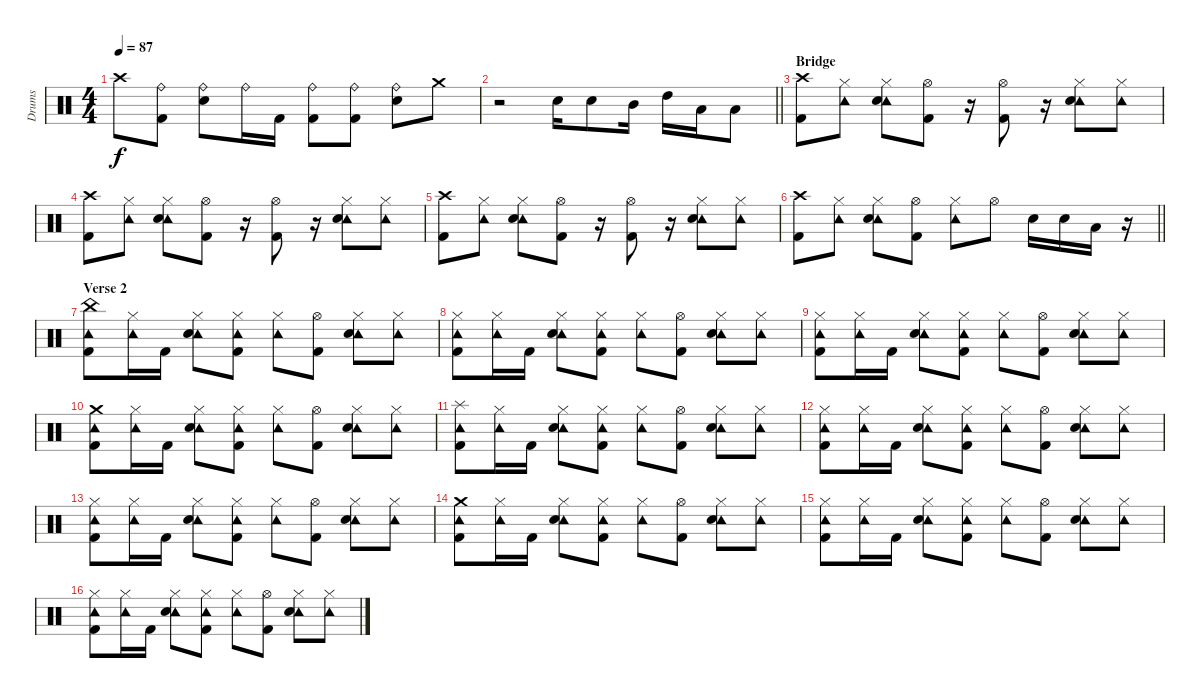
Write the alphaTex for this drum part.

\track ("Drums" "Drums") {instrument percussion}
\staff {score}
\articulation defaults
\ts (4 4)
\tempo 87
\clef neutral
\ks c "Crash high (hit)".8{dy f}
("Ride (bell)" "Kick (hit) 2").8 ("Ride (bell)" "Snare (hit) 2").8 "Ride (bell)".16 "Kick (hit) 2".16 ("Ride (bell)" "Kick (hit) 2").8 ("Ride (bell)" "Kick (hit) 2").8 ("Ride (bell)" "Snare (hit) 2").8 "Crash medium (hit)".8 |
\barLineRight lightlight
r.2 "Snare (hit) 2".16 "Snare (hit) 2".8 "Mid Tom (hit)".16 "High Tom (hit)".16 "Low Tom (hit)".16 "Low Floor Tom (hit)".8 |
\section ("" "Bridge")
("Crash high (hit)" "Kick (hit) 2").8 ("Tambourine (hit)" "Hi-Hat (closed)").8 ("Tambourine (hit)" "Hi-Hat (closed)" "Snare (hit) 2").8 ("Hi-Hat (open)" "Kick (hit) 2").8 r.16 ("Hi-Hat (open)" "Kick (hit) 2").8 r.16 ("Tambourine (hit)" "Hi-Hat (closed)" "Snare (hit) 2").8 ("Tambourine (hit)" "Hi-Hat (closed)").8 |
("Crash high (hit)" "Kick (hit) 2").8 ("Tambourine (hit)" "Hi-Hat (closed)").8 ("Tambourine (hit)" "Hi-Hat (closed)" "Snare (hit) 2").8 ("Hi-Hat (open)" "Kick (hit) 2").8 r.16 ("Hi-Hat (open)" "Kick (hit) 2").8 r.16 ("Tambourine (hit)" "Hi-Hat (closed)" "Snare (hit) 2").8 ("Tambourine (hit)" "Hi-Hat (closed)").8 |
("Crash high (hit)" "Kick (hit) 2").8 ("Tambourine (hit)" "Hi-Hat (closed)").8 ("Tambourine (hit)" "Hi-Hat (closed)" "Snare (hit) 2").8 ("Hi-Hat (open)" "Kick (hit) 2").8 r.16 ("Hi-Hat (open)" "Kick (hit) 2").8 r.16 ("Tambourine (hit)" "Hi-Hat (closed)" "Snare (hit) 2").8 ("Tambourine (hit)" "Hi-Hat (closed)").8 |
\barLineRight lightlight
("Crash high (hit)" "Kick (hit) 2").8 ("Tambourine (hit)" "Hi-Hat (closed)").8 ("Tambourine (hit)" "Hi-Hat (closed)" "Snare (hit) 2").8 ("Hi-Hat (open)" "Kick (hit) 2").8 ("Tambourine (hit)" "Hi-Hat (closed)").8 "Hi-Hat (open)".8 "Snare (hit) 2".16 "Snare (hit) 2".16 "Low Tom (hit)".16 r.16 |
\section ("" "Verse 2")
("Tambourine (hit)" "China (hit)" "Kick (hit) 2").8 ("Tambourine (hit)" "Hi-Hat (closed)").16 "Kick (hit) 2".16 ("Tambourine (hit)" "Hi-Hat (closed)" "Snare (hit) 2").8 ("Tambourine (hit)" "Hi-Hat (closed)" "Kick (hit) 2").8 ("Tambourine (hit)" "Hi-Hat (closed)").8 ("Hi-Hat (open)" "Kick (hit) 2").8 ("Tambourine (hit)" "Hi-Hat (closed)" "Snare (hit) 2").8 ("Tambourine (hit)" "Hi-Hat (closed)").8 |
("Tambourine (hit)" "Hi-Hat (closed)" "Kick (hit) 2").8 ("Tambourine (hit)" "Hi-Hat (closed)").16 "Kick (hit) 2".16 ("Tambourine (hit)" "Hi-Hat (closed)" "Snare (hit) 2").8 ("Tambourine (hit)" "Hi-Hat (closed)" "Kick (hit) 2").8 ("Tambourine (hit)" "Hi-Hat (closed)").8 ("Hi-Hat (open)" "Kick (hit) 2").8 ("Tambourine (hit)" "Hi-Hat (closed)" "Snare (hit) 2").8 ("Tambourine (hit)" "Hi-Hat (closed)").8 |
("Tambourine (hit)" "Hi-Hat (closed)" "Kick (hit) 2").8 ("Tambourine (hit)" "Hi-Hat (closed)").16 "Kick (hit) 2".16 ("Tambourine (hit)" "Hi-Hat (closed)" "Snare (hit) 2").8 ("Tambourine (hit)" "Hi-Hat (closed)" "Kick (hit) 2").8 ("Tambourine (hit)" "Hi-Hat (closed)").8 ("Hi-Hat (open)" "Kick (hit) 2").8 ("Tambourine (hit)" "Hi-Hat (closed)" "Snare (hit) 2").8 ("Tambourine (hit)" "Hi-Hat (closed)").8 |
("Tambourine (hit)" "Crash medium (hit)" "Kick (hit) 2").8 ("Tambourine (hit)" "Hi-Hat (closed)").16 "Kick (hit) 2".16 ("Tambourine (hit)" "Hi-Hat (closed)" "Snare (hit) 2").8 ("Tambourine (hit)" "Hi-Hat (closed)" "Kick (hit) 2").8 ("Tambourine (hit)" "Hi-Hat (closed)").8 ("Hi-Hat (open)" "Kick (hit) 2").8 ("Tambourine (hit)" "Hi-Hat (closed)" "Snare (hit) 2").8 ("Tambourine (hit)" "Hi-Hat (closed)").8 |
("Tambourine (hit)" "Splash (hit)" "Kick (hit) 2").8 ("Tambourine (hit)" "Hi-Hat (closed)").16 "Kick (hit) 2".16 ("Tambourine (hit)" "Hi-Hat (closed)" "Snare (hit) 2").8 ("Tambourine (hit)" "Hi-Hat (closed)" "Kick (hit) 2").8 ("Tambourine (hit)" "Hi-Hat (closed)").8 ("Hi-Hat (open)" "Kick (hit) 2").8 ("Tambourine (hit)" "Hi-Hat (closed)" "Snare (hit) 2").8 ("Tambourine (hit)" "Hi-Hat (closed)").8 |
("Tambourine (hit)" "Hi-Hat (closed)" "Kick (hit) 2").8 ("Tambourine (hit)" "Hi-Hat (closed)").16 "Kick (hit) 2".16 ("Tambourine (hit)" "Hi-Hat (closed)" "Snare (hit) 2").8 ("Tambourine (hit)" "Hi-Hat (closed)" "Kick (hit) 2").8 ("Tambourine (hit)" "Hi-Hat (closed)").8 ("Hi-Hat (open)" "Kick (hit) 2").8 ("Tambourine (hit)" "Hi-Hat (closed)" "Snare (hit) 2").8 ("Tambourine (hit)" "Hi-Hat (closed)").8 |
("Tambourine (hit)" "Hi-Hat (closed)" "Kick (hit) 2").8 ("Tambourine (hit)" "Hi-Hat (closed)").16 "Kick (hit) 2".16 ("Tambourine (hit)" "Hi-Hat (closed)" "Snare (hit) 2").8 ("Tambourine (hit)" "Hi-Hat (closed)" "Kick (hit) 2").8 ("Tambourine (hit)" "Hi-Hat (closed)").8 ("Hi-Hat (open)" "Kick (hit) 2").8 ("Tambourine (hit)" "Hi-Hat (closed)" "Snare (hit) 2").8 ("Tambourine (hit)" "Hi-Hat (closed)").8 |
("Tambourine (hit)" "Crash medium (hit)" "Kick (hit) 2").8 ("Tambourine (hit)" "Hi-Hat (closed)").16 "Kick (hit) 2".16 ("Tambourine (hit)" "Hi-Hat (closed)" "Snare (hit) 2").8 ("Tambourine (hit)" "Hi-Hat (closed)" "Kick (hit) 2").8 ("Tambourine (hit)" "Hi-Hat (closed)").8 ("Hi-Hat (open)" "Kick (hit) 2").8 ("Tambourine (hit)" "Hi-Hat (closed)" "Snare (hit) 2").8 ("Tambourine (hit)" "Hi-Hat (closed)").8 |
("Tambourine (hit)" "Hi-Hat (closed)" "Kick (hit) 2").8 ("Tambourine (hit)" "Hi-Hat (closed)").16 "Kick (hit) 2".16 ("Tambourine (hit)" "Hi-Hat (closed)" "Snare (hit) 2").8 ("Tambourine (hit)" "Hi-Hat (closed)" "Kick (hit) 2").8 ("Tambourine (hit)" "Hi-Hat (closed)").8 ("Hi-Hat (open)" "Kick (hit) 2").8 ("Tambourine (hit)" "Hi-Hat (closed)" "Snare (hit) 2").8 ("Tambourine (hit)" "Hi-Hat (closed)").8 |
("Tambourine (hit)" "Hi-Hat (closed)" "Kick (hit) 2").8 ("Tambourine (hit)" "Hi-Hat (closed)").16 "Kick (hit) 2".16 ("Tambourine (hit)" "Hi-Hat (closed)" "Snare (hit) 2").8 ("Tambourine (hit)" "Hi-Hat (closed)" "Kick (hit) 2").8 ("Tambourine (hit)" "Hi-Hat (closed)").8 ("Hi-Hat (open)" "Kick (hit) 2").8 ("Tambourine (hit)" "Hi-Hat (closed)" "Snare (hit) 2").8 ("Tambourine (hit)" "Hi-Hat (closed)").8
